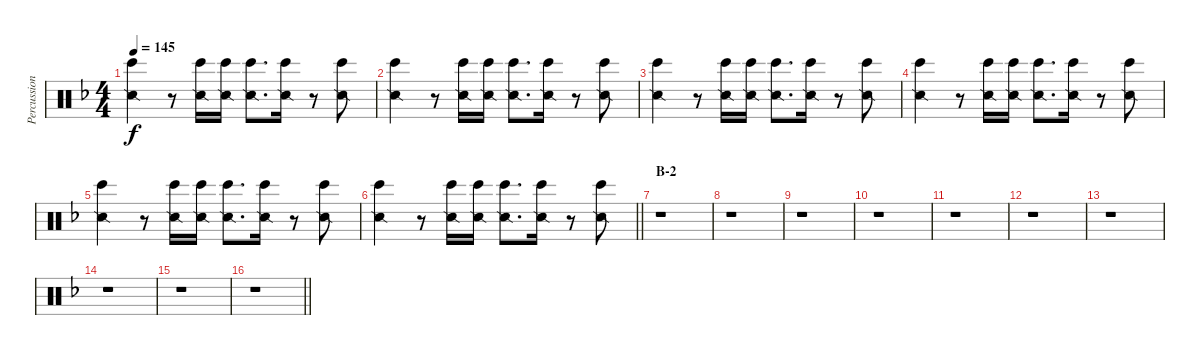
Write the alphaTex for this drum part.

\track ("Percussion" "Percussion") {instrument percussion}
\staff {score}
\articulation defaults
\ts (4 4)
\tempo 145
\clef neutral
\ks f
("Snare (side stick) 2" "Bongo High (hit)").4{dy f} r.8 ("Snare (side stick) 2" "Bongo High (hit)").16 ("Snare (side stick) 2" "Bongo High (hit)").16 ("Snare (side stick) 2" "Bongo High (hit)").8{d} ("Snare (side stick) 2" "Bongo High (hit)").16 r.8 ("Snare (side stick) 2" "Bongo High (hit)").8 |
("Snare (side stick) 2" "Bongo High (hit)").4 r.8 ("Snare (side stick) 2" "Bongo High (hit)").16 ("Snare (side stick) 2" "Bongo High (hit)").16 ("Snare (side stick) 2" "Bongo High (hit)").8{d} ("Snare (side stick) 2" "Bongo High (hit)").16 r.8 ("Snare (side stick) 2" "Bongo High (hit)").8 |
("Snare (side stick) 2" "Bongo High (hit)").4 r.8 ("Snare (side stick) 2" "Bongo High (hit)").16 ("Snare (side stick) 2" "Bongo High (hit)").16 ("Snare (side stick) 2" "Bongo High (hit)").8{d} ("Snare (side stick) 2" "Bongo High (hit)").16 r.8 ("Snare (side stick) 2" "Bongo High (hit)").8 |
("Snare (side stick) 2" "Bongo High (hit)").4 r.8 ("Snare (side stick) 2" "Bongo High (hit)").16 ("Snare (side stick) 2" "Bongo High (hit)").16 ("Snare (side stick) 2" "Bongo High (hit)").8{d} ("Snare (side stick) 2" "Bongo High (hit)").16 r.8 ("Snare (side stick) 2" "Bongo High (hit)").8 |
("Snare (side stick) 2" "Bongo High (hit)").4 r.8 ("Snare (side stick) 2" "Bongo High (hit)").16 ("Snare (side stick) 2" "Bongo High (hit)").16 ("Snare (side stick) 2" "Bongo High (hit)").8{d} ("Snare (side stick) 2" "Bongo High (hit)").16 r.8 ("Snare (side stick) 2" "Bongo High (hit)").8 |
\barLineRight lightlight
("Snare (side stick) 2" "Bongo High (hit)").4 r.8 ("Snare (side stick) 2" "Bongo High (hit)").16 ("Snare (side stick) 2" "Bongo High (hit)").16 ("Snare (side stick) 2" "Bongo High (hit)").8{d} ("Snare (side stick) 2" "Bongo High (hit)").16 r.8 ("Snare (side stick) 2" "Bongo High (hit)").8 |
\section ("" "B-2")
r.1 |
r.1 |
r.1 |
r.1 |
r.1 |
r.1 |
r.1 |
r.1 |
r.1 |
\barLineRight lightlight
r.1
